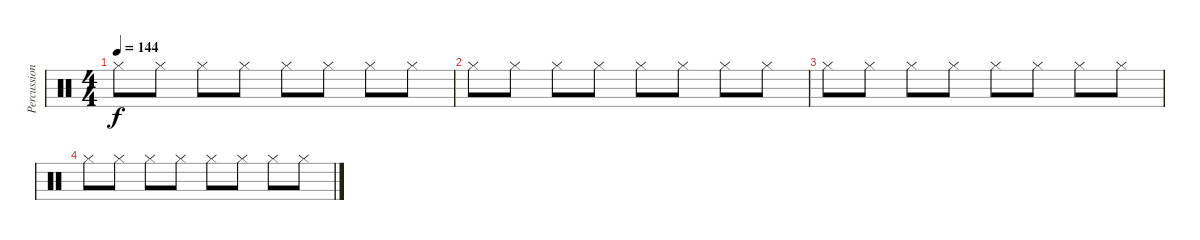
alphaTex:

\track ("Percussion" "Percussion") {instrument percussion}
\staff {score}
\articulation defaults
\ts (4 4)
\tempo 144
\clef neutral
\ks c "Hi-Hat (closed)".8{dy f} "Hi-Hat (closed)".8 "Hi-Hat (closed)".8 "Hi-Hat (closed)".8 "Hi-Hat (closed)".8 "Hi-Hat (closed)".8 "Hi-Hat (closed)".8 "Hi-Hat (closed)".8
|
"Hi-Hat (closed)".8 "Hi-Hat (closed)".8 "Hi-Hat (closed)".8 "Hi-Hat (closed)".8 "Hi-Hat (closed)".8 "Hi-Hat (closed)".8 "Hi-Hat (closed)".8 "Hi-Hat (closed)".8 |
"Hi-Hat (closed)".8 "Hi-Hat (closed)".8 "Hi-Hat (closed)".8 "Hi-Hat (closed)".8 "Hi-Hat (closed)".8 "Hi-Hat (closed)".8 "Hi-Hat (closed)".8 "Hi-Hat (closed)".8 |
"Hi-Hat (closed)".8 "Hi-Hat (closed)".8 "Hi-Hat (closed)".8 "Hi-Hat (closed)".8 "Hi-Hat (closed)".8 "Hi-Hat (closed)".8 "Hi-Hat (closed)".8 "Hi-Hat (closed)".8
